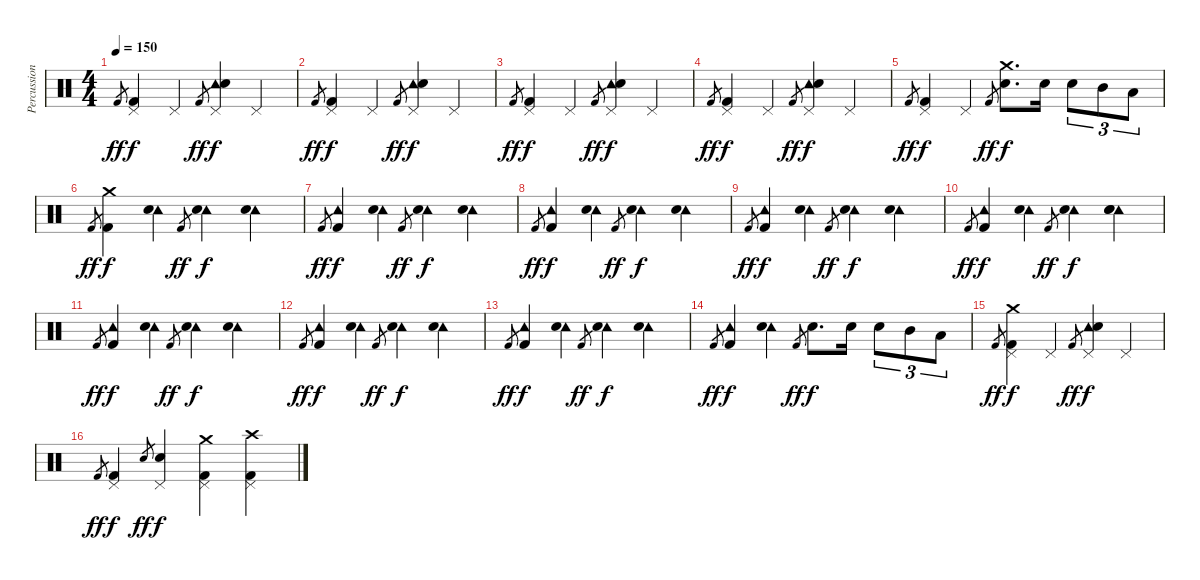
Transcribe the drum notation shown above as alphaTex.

\track ("Percussion" "Percussion") {instrument percussion}
\staff {score}
\articulation defaults
\ts (4 4)
\tempo 150
\clef neutral
\ks c "Kick (hit) 2".8{gr dy ff}
("Kick (hit) 2" "Pedal Hi-Hat (hit)").4{dy f} "Pedal Hi-Hat (hit)".4 "Kick (hit) 2".8{gr dy ff} ("Tambourine (hit)" "Snare (hit) 2" "Pedal Hi-Hat (hit)").4{dy f} "Pedal Hi-Hat (hit)".4 |
"Kick (hit) 2".8{gr dy ff} ("Kick (hit) 2" "Pedal Hi-Hat (hit)").4{dy f} "Pedal Hi-Hat (hit)".4 "Kick (hit) 2".8{gr dy ff} ("Tambourine (hit)" "Snare (hit) 2" "Pedal Hi-Hat (hit)").4{dy f} "Pedal Hi-Hat (hit)".4 |
"Kick (hit) 2".8{gr dy ff} ("Kick (hit) 2" "Pedal Hi-Hat (hit)").4{dy f} "Pedal Hi-Hat (hit)".4 "Kick (hit) 2".8{gr dy ff} ("Tambourine (hit)" "Snare (hit) 2" "Pedal Hi-Hat (hit)").4{dy f} "Pedal Hi-Hat (hit)".4 |
"Kick (hit) 2".8{gr dy ff} ("Kick (hit) 2" "Pedal Hi-Hat (hit)").4{dy f} "Pedal Hi-Hat (hit)".4 "Kick (hit) 2".8{gr dy ff} ("Tambourine (hit)" "Snare (hit) 2" "Pedal Hi-Hat (hit)").4{dy f} "Pedal Hi-Hat (hit)".4 |
"Kick (hit) 2".8{gr dy ff} ("Kick (hit) 2" "Pedal Hi-Hat (hit)").4{dy f} "Pedal Hi-Hat (hit)".4 "Kick (hit) 2".8{gr dy ff} ("Crash medium (hit)" "Snare (hit) 2").8{d dy f} "Snare (hit) 2".16 "Snare (hit) 2".8{tu (3 2)} "Mid Tom (hit)".8{tu (3 2)} "Low Tom (hit)".8{tu (3 2)} |
"Kick (hit) 2".8{gr dy ff} ("Crash medium (hit)" "Kick (hit) 2").4{dy f} ("Tambourine (hit)" "Hand Clap (hit)").4 "Kick (hit) 2".8{gr dy ff} ("Tambourine (hit)" "Snare (hit) 2").4{dy f} ("Tambourine (hit)" "Hand Clap (hit)").4 |
"Kick (hit) 2".8{gr dy ff} ("Tambourine (hit)" "Kick (hit) 2").4{dy f} ("Tambourine (hit)" "Hand Clap (hit)").4 "Kick (hit) 2".8{gr dy ff} ("Tambourine (hit)" "Snare (hit) 2").4{dy f} ("Tambourine (hit)" "Hand Clap (hit)").4 |
"Kick (hit) 2".8{gr dy ff} ("Tambourine (hit)" "Kick (hit) 2").4{dy f} ("Tambourine (hit)" "Hand Clap (hit)").4 "Kick (hit) 2".8{gr dy ff} ("Tambourine (hit)" "Snare (hit) 2").4{dy f} ("Tambourine (hit)" "Hand Clap (hit)").4 |
"Kick (hit) 2".8{gr dy ff} ("Tambourine (hit)" "Kick (hit) 2").4{dy f} ("Tambourine (hit)" "Hand Clap (hit)").4 "Kick (hit) 2".8{gr dy ff} ("Tambourine (hit)" "Snare (hit) 2").4{dy f} ("Tambourine (hit)" "Hand Clap (hit)").4 |
"Kick (hit) 2".8{gr dy ff} ("Tambourine (hit)" "Kick (hit) 2").4{dy f} ("Tambourine (hit)" "Hand Clap (hit)").4 "Kick (hit) 2".8{gr dy ff} ("Tambourine (hit)" "Snare (hit) 2").4{dy f} ("Tambourine (hit)" "Hand Clap (hit)" "Snare (hit) 2").4 |
"Kick (hit) 2".8{gr dy ff} ("Tambourine (hit)" "Kick (hit) 2").4{dy f} ("Tambourine (hit)" "Hand Clap (hit)").4 "Kick (hit) 2".8{gr dy ff} ("Tambourine (hit)" "Snare (hit) 2").4{dy f} ("Tambourine (hit)" "Hand Clap (hit)").4 |
"Kick (hit) 2".8{gr dy ff} ("Tambourine (hit)" "Kick (hit) 2").4{dy f} ("Tambourine (hit)" "Hand Clap (hit)").4 "Kick (hit) 2".8{gr dy ff} ("Tambourine (hit)" "Snare (hit) 2").4{dy f} ("Tambourine (hit)" "Hand Clap (hit)").4 |
"Kick (hit) 2".8{gr dy ff} ("Tambourine (hit)" "Kick (hit) 2").4{dy f} ("Tambourine (hit)" "Hand Clap (hit)").4 "Kick (hit) 2".8{gr dy ff} ("Tambourine (hit)" "Snare (hit) 2").4{dy f} ("Tambourine (hit)" "Hand Clap (hit)").4 |
"Kick (hit) 2".8{gr dy ff} ("Tambourine (hit)" "Kick (hit) 2").4{dy f} ("Tambourine (hit)" "Hand Clap (hit)").4 "Kick (hit) 2".8{gr dy ff} "Snare (hit) 2".8{d dy f} "Snare (hit) 2".16 "Snare (hit) 2".8{tu (3 2)} "Mid Tom (hit)".8{tu (3 2)} "Low Tom (hit)".8{tu (3 2)} |
"Kick (hit) 2".8{gr dy ff} ("Crash medium (hit)" "Kick (hit) 2" "Pedal Hi-Hat (hit)").4{dy f} "Pedal Hi-Hat (hit)".4 "Kick (hit) 2".8{gr dy ff} ("Tambourine (hit)" "Snare (hit) 2" "Pedal Hi-Hat (hit)").4{dy f} "Pedal Hi-Hat (hit)".4 |
"Kick (hit) 2".8{gr dy ff} ("Kick (hit) 2" "Pedal Hi-Hat (hit)").4{dy f} "Snare (hit) 2".8{gr dy ff} ("Snare (hit) 2" "Pedal Hi-Hat (hit)").4{dy f} ("Crash medium (hit)" "Kick (hit) 2" "Pedal Hi-Hat (hit)").4 ("Crash high (hit)" "Kick (hit) 2" "Pedal Hi-Hat (hit)").4
